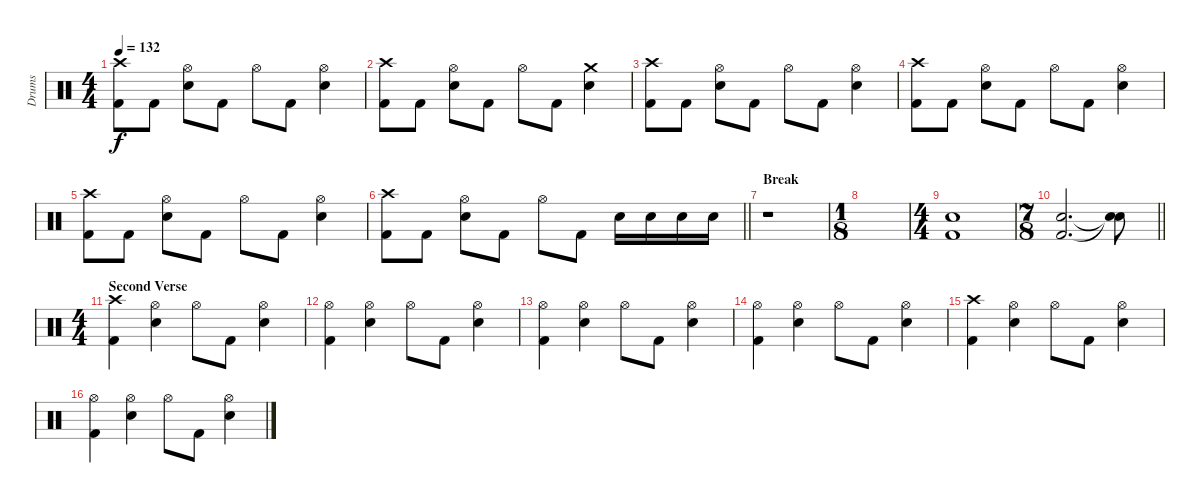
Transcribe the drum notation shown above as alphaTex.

\track ("Drums" "Drums") {instrument percussion}
\staff {score}
\articulation defaults
\ts (4 4)
\tempo 132
\clef neutral
\ks c
("Crash high (hit)" "Kick (hit) 2").8{dy f} "Kick (hit) 2".8 ("Hi-Hat (open)" "Electric Snare (hit)").8 "Kick (hit) 2".8 "Hi-Hat (open)".8 "Kick (hit) 2".8 ("Hi-Hat (open)" "Electric Snare (hit)").4 |
("Crash high (hit)" "Kick (hit) 2").8 "Kick (hit) 2".8 ("Hi-Hat (open)" "Electric Snare (hit)").8 "Kick (hit) 2".8 "Hi-Hat (open)".8 "Kick (hit) 2".8 ("Crash medium (hit)" "Electric Snare (hit)").4 |
("Crash high (hit)" "Kick (hit) 2").8 "Kick (hit) 2".8 ("Hi-Hat (open)" "Electric Snare (hit)").8 "Kick (hit) 2".8 "Hi-Hat (open)".8 "Kick (hit) 2".8 ("Hi-Hat (open)" "Electric Snare (hit)").4 |
("Crash high (hit)" "Kick (hit) 2").8 "Kick (hit) 2".8 ("Hi-Hat (open)" "Electric Snare (hit)").8 "Kick (hit) 2".8 "Hi-Hat (open)".8 "Kick (hit) 2".8 ("Hi-Hat (open)" "Electric Snare (hit)").4 |
("Crash high (hit)" "Kick (hit) 2").8 "Kick (hit) 2".8 ("Hi-Hat (open)" "Electric Snare (hit)").8 "Kick (hit) 2".8 "Hi-Hat (open)".8 "Kick (hit) 2".8 ("Hi-Hat (open)" "Electric Snare (hit)").4 |
\barLineRight lightlight
("Crash high (hit)" "Kick (hit) 2").8 "Kick (hit) 2".8 ("Hi-Hat (open)" "Electric Snare (hit)").8 "Kick (hit) 2".8 "Hi-Hat (open)".8 "Kick (hit) 2".8 "Electric Snare (hit)".16 "Electric Snare (hit)".16 "Electric Snare (hit)".16 "Electric Snare (hit)".16 |
\section ("" "Break")
r.1 |
\ts (1 8)
|
\ts (4 4)
("Electric Snare (hit)" "Kick (hit) 2").1 |
\ts (7 8)
\barLineRight lightlight
("Electric Snare (hit)" "Kick (hit) 2").2{d} ("Snare (hit)"{t} "Snare (hit)"{t}).8 |
\ts (4 4)
\section ("" "Second Verse")
("Crash high (hit)" "Kick (hit) 2").4 ("Hi-Hat (open)" "Electric Snare (hit)").4 "Hi-Hat (open)".8 "Kick (hit) 2".8 ("Hi-Hat (open)" "Electric Snare (hit)").4 |
("Hi-Hat (open)" "Kick (hit) 2").4 ("Hi-Hat (open)" "Electric Snare (hit)").4 "Hi-Hat (open)".8 "Kick (hit) 2".8 ("Hi-Hat (open)" "Electric Snare (hit)").4 |
("Hi-Hat (open)" "Kick (hit) 2").4 ("Hi-Hat (open)" "Electric Snare (hit)").4 "Hi-Hat (open)".8 "Kick (hit) 2".8 ("Hi-Hat (open)" "Electric Snare (hit)").4 |
("Hi-Hat (open)" "Kick (hit) 2").4 ("Hi-Hat (open)" "Electric Snare (hit)").4 "Hi-Hat (open)".8 "Kick (hit) 2".8 ("Hi-Hat (open)" "Electric Snare (hit)").4 |
("Crash high (hit)" "Kick (hit) 2").4 ("Hi-Hat (open)" "Electric Snare (hit)").4 "Hi-Hat (open)".8 "Kick (hit) 2".8 ("Hi-Hat (open)" "Electric Snare (hit)").4 |
("Hi-Hat (open)" "Kick (hit) 2").4 ("Hi-Hat (open)" "Electric Snare (hit)").4 "Hi-Hat (open)".8 "Kick (hit) 2".8 ("Hi-Hat (open)" "Electric Snare (hit)").4
